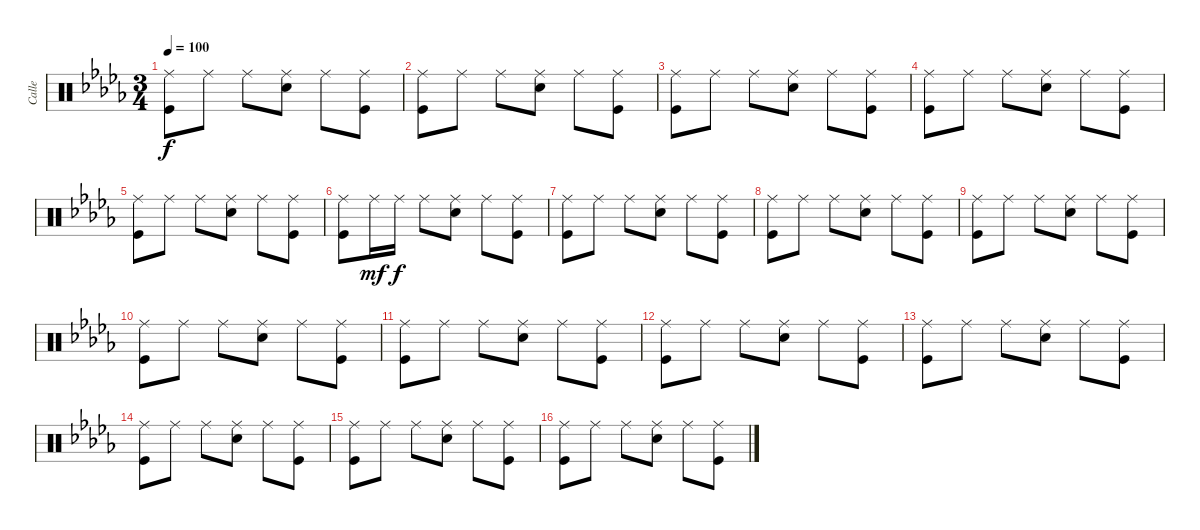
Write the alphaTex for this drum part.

\track ("Calle" "Calle") {instrument percussion}
\staff {score}
\articulation defaults
\ts (3 4)
\tempo 100
\clef neutral
\ks bbminor
("Ride (middle)" "Kick (hit)").8{dy f} "Ride (middle)".8 "Ride (middle)".8 ("Ride (middle)" "Electric Snare (hit)").8 "Ride (middle)".8 ("Ride (middle)" "Kick (hit)").8 |
("Ride (middle)" "Kick (hit)").8 "Ride (middle)".8 "Ride (middle)".8 ("Ride (middle)" "Electric Snare (hit)").8 "Ride (middle)".8 ("Ride (middle)" "Kick (hit)").8 |
("Ride (middle)" "Kick (hit)").8 "Ride (middle)".8 "Ride (middle)".8 ("Ride (middle)" "Electric Snare (hit)").8 "Ride (middle)".8 ("Ride (middle)" "Kick (hit)").8 |
("Ride (middle)" "Kick (hit)").8 "Ride (middle)".8 "Ride (middle)".8 ("Ride (middle)" "Electric Snare (hit)").8 "Ride (middle)".8 ("Ride (middle)" "Kick (hit)").8 |
("Ride (middle)" "Kick (hit)").8 "Ride (middle)".8 "Ride (middle)".8 ("Ride (middle)" "Electric Snare (hit)").8 "Ride (middle)".8 ("Ride (middle)" "Kick (hit)").8 |
("Ride (middle)" "Kick (hit)").8 "Ride (middle)".16{dy mf} "Ride (middle)".16{dy f} "Ride (middle)".8 ("Ride (middle)" "Electric Snare (hit)").8 "Ride (middle)".8 ("Ride (middle)" "Kick (hit)").8 |
("Ride (middle)" "Kick (hit)").8 "Ride (middle)".8 "Ride (middle)".8 ("Ride (middle)" "Electric Snare (hit)").8 "Ride (middle)".8 ("Ride (middle)" "Kick (hit)").8 |
("Ride (middle)" "Kick (hit)").8 "Ride (middle)".8 "Ride (middle)".8 ("Ride (middle)" "Electric Snare (hit)").8 "Ride (middle)".8 ("Ride (middle)" "Kick (hit)").8 |
("Ride (middle)" "Kick (hit)").8 "Ride (middle)".8 "Ride (middle)".8 ("Ride (middle)" "Electric Snare (hit)").8 "Ride (middle)".8 ("Ride (middle)" "Kick (hit)").8 |
("Ride (middle)" "Kick (hit)").8 "Ride (middle)".8 "Ride (middle)".8 ("Ride (middle)" "Electric Snare (hit)").8 "Ride (middle)".8 ("Ride (middle)" "Kick (hit)").8 |
("Ride (middle)" "Kick (hit)").8 "Ride (middle)".8 "Ride (middle)".8 ("Ride (middle)" "Electric Snare (hit)").8 "Ride (middle)".8 ("Ride (middle)" "Kick (hit)").8 |
("Ride (middle)" "Kick (hit)").8 "Ride (middle)".8 "Ride (middle)".8 ("Ride (middle)" "Electric Snare (hit)").8 "Ride (middle)".8 ("Ride (middle)" "Kick (hit)").8 |
("Ride (middle)" "Kick (hit)").8 "Ride (middle)".8 "Ride (middle)".8 ("Ride (middle)" "Electric Snare (hit)").8 "Ride (middle)".8 ("Ride (middle)" "Kick (hit)").8 |
("Ride (middle)" "Kick (hit)").8 "Ride (middle)".8 "Ride (middle)".8 ("Ride (middle)" "Electric Snare (hit)").8 "Ride (middle)".8 ("Ride (middle)" "Kick (hit)").8 |
("Ride (middle)" "Kick (hit)").8 "Ride (middle)".8 "Ride (middle)".8 ("Ride (middle)" "Electric Snare (hit)").8 "Ride (middle)".8 ("Ride (middle)" "Kick (hit)").8 |
("Ride (middle)" "Kick (hit)").8 "Ride (middle)".8 "Ride (middle)".8 ("Ride (middle)" "Electric Snare (hit)").8 "Ride (middle)".8 ("Ride (middle)" "Kick (hit)").8
